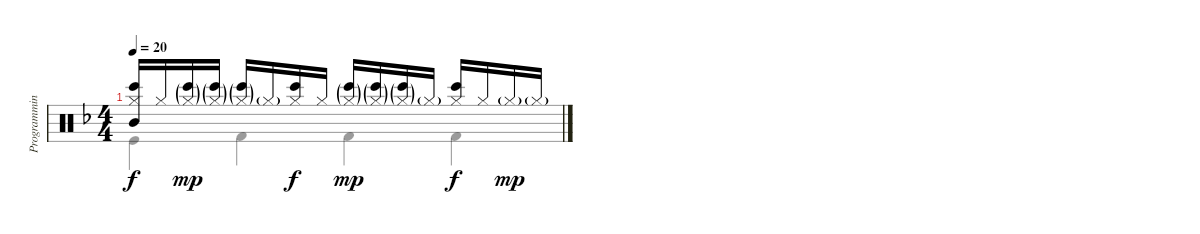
\track ("Programming" "Programmin") {instrument percussion}
\staff {score}
\articulation defaults
\voice
\ts (4 4)
\tempo 20
\clef neutral
\ks f
("Hi-Hat (closed)" "Bongo High (hit)" "Mid Tom (hit)").16{dy f} "Hi-Hat (closed)".16 ("Hi-Hat (closed)"{g} "Bongo High (hit)"{g}).16{dy mp} ("Hi-Hat (closed)"{g} "Bongo High (hit)"{g}).16 ("Hi-Hat (closed)"{g} "Bongo High (hit)"{g}).16 "Hi-Hat (closed)"{g}.16 ("Hi-Hat (closed)" "Bongo High (hit)").16{dy f} "Hi-Hat (closed)".16 ("Hi-Hat (closed)"{g} "Bongo High (hit)"{g}).16{dy mp} ("Hi-Hat (closed)"{g} "Bongo High (hit)"{g}).16 ("Hi-Hat (closed)"{g} "Bongo High (hit)"{g}).16 "Hi-Hat (closed)"{g}.16 ("Hi-Hat (closed)" "Bongo High (hit)").16{dy f} "Hi-Hat (closed)".16 "Hi-Hat (closed)"{g}.16{dy mp} "Hi-Hat (closed)"{g}.16
\voice
\clef neutral
\ottava regular
\simile none
\ks f "Kick (hit)".4{dy f} "Kick (hit) 2".4 "Kick (hit) 2".4 "Kick (hit) 2".4
